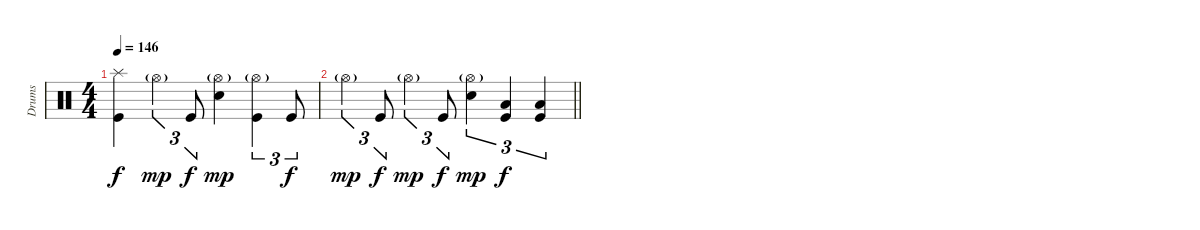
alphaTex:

\track ("Drums" "Drums") {instrument percussion}
\staff
\articulation defaults
\ts (4 4)
\tempo 146
\clef neutral
\ks c
("Splash (hit)" "Kick (hit)").4{dy f} "Hi-Hat (open)"{g}.4{tu (3 2) dy mp} "Kick (hit)".8{tu (3 2) dy f} ("Hi-Hat (open)"{g} "Electric Snare (hit)").4{dy mp} ("Hi-Hat (open)"{g} "Kick (hit)").4{tu (3 2)} "Kick (hit)".8{tu (3 2) dy f} |
\barLineRight lightlight "Hi-Hat (open)"{g}.4{tu (3 2) dy mp} "Kick (hit)".8{tu (3 2) dy f} "Hi-Hat (open)"{g}.4{tu (3 2) dy mp} "Kick (hit)".8{tu (3 2) dy f}
("Hi-Hat (open)"{g} "Electric Snare (hit)").4{tu (3 2) dy mp} ("Low Floor Tom (hit)" "Kick (hit)").4{tu (3 2) dy f} ("Low Floor Tom (hit)" "Kick (hit)").4{tu (3 2)}
